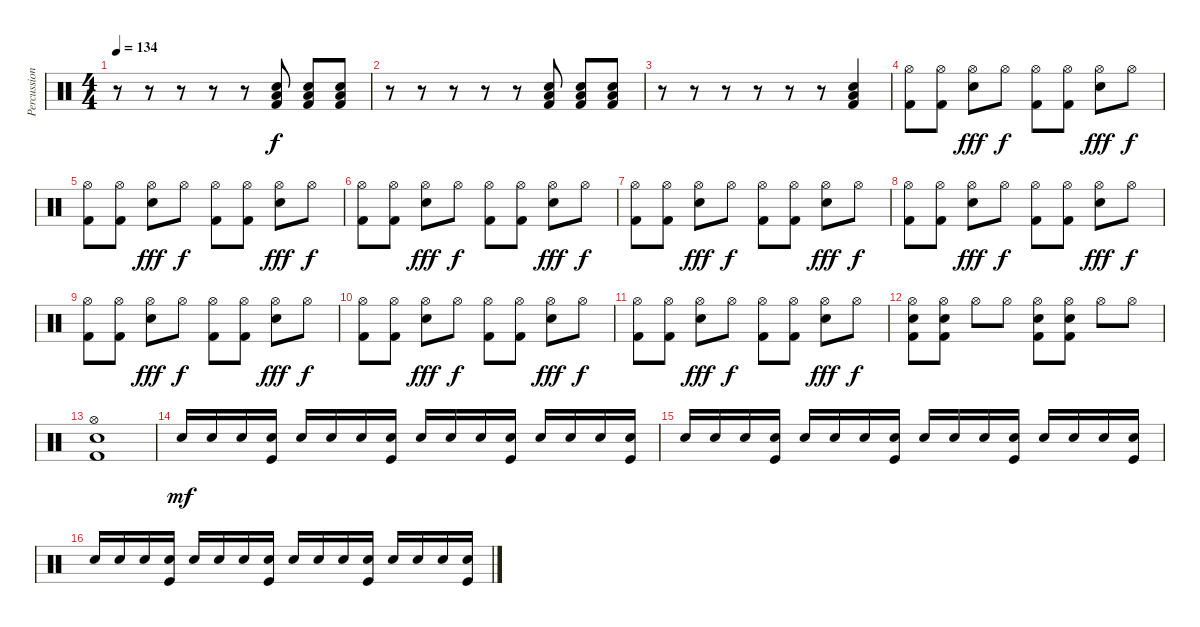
\track ("Percussion" "Percussion") {instrument percussion}
\staff {score}
\articulation defaults
\ts (4 4)
\tempo 134
\clef neutral
\ks c
r.8{dy f} r.8 r.8 r.8 r.8 ("Low Tom (hit)" "Snare (hit) 2" "Kick (hit) 2").8 ("Low Tom (hit)" "Snare (hit) 2" "Kick (hit) 2").8 ("Low Tom (hit)" "Snare (hit) 2" "Kick (hit) 2").8 |
r.8 r.8 r.8 r.8 r.8 ("Low Tom (hit)" "Snare (hit) 2" "Kick (hit) 2").8 ("Low Tom (hit)" "Snare (hit) 2" "Kick (hit) 2").8 ("Low Tom (hit)" "Snare (hit) 2" "Kick (hit) 2").8 |
r.8 r.8 r.8 r.8 r.8 r.8 ("Low Tom (hit)" "Snare (hit) 2" "Kick (hit) 2").4 |
("Hi-Hat (open)" "Kick (hit) 2").8 ("Hi-Hat (open)" "Kick (hit) 2").8 ("Hi-Hat (open)" "Snare (hit) 2").8{dy fff} "Hi-Hat (open)".8{dy f} ("Hi-Hat (open)" "Kick (hit) 2").8 ("Hi-Hat (open)" "Kick (hit) 2").8 ("Hi-Hat (open)" "Snare (hit) 2").8{dy fff} "Hi-Hat (open)".8{dy f} |
("Hi-Hat (open)" "Kick (hit) 2").8 ("Hi-Hat (open)" "Kick (hit) 2").8 ("Hi-Hat (open)" "Snare (hit) 2").8{dy fff} "Hi-Hat (open)".8{dy f} ("Hi-Hat (open)" "Kick (hit) 2").8 ("Hi-Hat (open)" "Kick (hit) 2").8 ("Hi-Hat (open)" "Snare (hit) 2").8{dy fff} "Hi-Hat (open)".8{dy f} |
("Hi-Hat (open)" "Kick (hit) 2").8 ("Hi-Hat (open)" "Kick (hit) 2").8 ("Hi-Hat (open)" "Snare (hit) 2").8{dy fff} "Hi-Hat (open)".8{dy f} ("Hi-Hat (open)" "Kick (hit) 2").8 ("Hi-Hat (open)" "Kick (hit) 2").8 ("Hi-Hat (open)" "Snare (hit) 2").8{dy fff} "Hi-Hat (open)".8{dy f} |
("Hi-Hat (open)" "Kick (hit) 2").8 ("Hi-Hat (open)" "Kick (hit) 2").8 ("Hi-Hat (open)" "Snare (hit) 2").8{dy fff} "Hi-Hat (open)".8{dy f} ("Hi-Hat (open)" "Kick (hit) 2").8 ("Hi-Hat (open)" "Kick (hit) 2").8 ("Hi-Hat (open)" "Snare (hit) 2").8{dy fff} "Hi-Hat (open)".8{dy f} |
("Hi-Hat (open)" "Kick (hit) 2").8 ("Hi-Hat (open)" "Kick (hit) 2").8 ("Hi-Hat (open)" "Snare (hit) 2").8{dy fff} "Hi-Hat (open)".8{dy f} ("Hi-Hat (open)" "Kick (hit) 2").8 ("Hi-Hat (open)" "Kick (hit) 2").8 ("Hi-Hat (open)" "Snare (hit) 2").8{dy fff} "Hi-Hat (open)".8{dy f} |
("Hi-Hat (open)" "Kick (hit) 2").8 ("Hi-Hat (open)" "Kick (hit) 2").8 ("Hi-Hat (open)" "Snare (hit) 2").8{dy fff} "Hi-Hat (open)".8{dy f} ("Hi-Hat (open)" "Kick (hit) 2").8 ("Hi-Hat (open)" "Kick (hit) 2").8 ("Hi-Hat (open)" "Snare (hit) 2").8{dy fff} "Hi-Hat (open)".8{dy f} |
("Hi-Hat (open)" "Kick (hit) 2").8 ("Hi-Hat (open)" "Kick (hit) 2").8 ("Hi-Hat (open)" "Snare (hit) 2").8{dy fff} "Hi-Hat (open)".8{dy f} ("Hi-Hat (open)" "Kick (hit) 2").8 ("Hi-Hat (open)" "Kick (hit) 2").8 ("Hi-Hat (open)" "Snare (hit) 2").8{dy fff} "Hi-Hat (open)".8{dy f} |
("Hi-Hat (open)" "Kick (hit) 2").8 ("Hi-Hat (open)" "Kick (hit) 2").8 ("Hi-Hat (open)" "Snare (hit) 2").8{dy fff} "Hi-Hat (open)".8{dy f} ("Hi-Hat (open)" "Kick (hit) 2").8 ("Hi-Hat (open)" "Kick (hit) 2").8 ("Hi-Hat (open)" "Snare (hit) 2").8{dy fff} "Hi-Hat (open)".8{dy f} |
("Hi-Hat (open)" "Snare (hit) 2" "Kick (hit) 2").8 ("Hi-Hat (open)" "Snare (hit) 2" "Kick (hit) 2").8 "Hi-Hat (open)".8 "Hi-Hat (open)".8 ("Hi-Hat (open)" "Snare (hit) 2" "Kick (hit) 2").8 ("Hi-Hat (open)" "Snare (hit) 2" "Kick (hit) 2").8 "Hi-Hat (open)".8 "Hi-Hat (open)".8 |
("Hi-Hat (open)" "Snare (hit) 2" "Kick (hit) 2").1 |
"Snare (hit) 2".16{dy mf} "Snare (hit) 2".16 "Snare (hit) 2".16 ("Snare (hit) 2" "Kick (hit)").16 "Snare (hit) 2".16 "Snare (hit) 2".16 "Snare (hit) 2".16 ("Snare (hit) 2" "Kick (hit)").16 "Snare (hit) 2".16 "Snare (hit) 2".16 "Snare (hit) 2".16 ("Snare (hit) 2" "Kick (hit)").16 "Snare (hit) 2".16 "Snare (hit) 2".16 "Snare (hit) 2".16 ("Snare (hit) 2" "Kick (hit)").16 |
"Snare (hit) 2".16 "Snare (hit) 2".16 "Snare (hit) 2".16 ("Snare (hit) 2" "Kick (hit)").16 "Snare (hit) 2".16 "Snare (hit) 2".16 "Snare (hit) 2".16 ("Snare (hit) 2" "Kick (hit)").16 "Snare (hit) 2".16 "Snare (hit) 2".16 "Snare (hit) 2".16 ("Snare (hit) 2" "Kick (hit)").16 "Snare (hit) 2".16 "Snare (hit) 2".16 "Snare (hit) 2".16 ("Snare (hit) 2" "Kick (hit)").16 |
"Snare (hit) 2".16 "Snare (hit) 2".16 "Snare (hit) 2".16 ("Snare (hit) 2" "Kick (hit)").16 "Snare (hit) 2".16 "Snare (hit) 2".16 "Snare (hit) 2".16 ("Snare (hit) 2" "Kick (hit)").16 "Snare (hit) 2".16 "Snare (hit) 2".16 "Snare (hit) 2".16 ("Snare (hit) 2" "Kick (hit)").16 "Snare (hit) 2".16 "Snare (hit) 2".16 "Snare (hit) 2".16 ("Snare (hit) 2" "Kick (hit)").16
